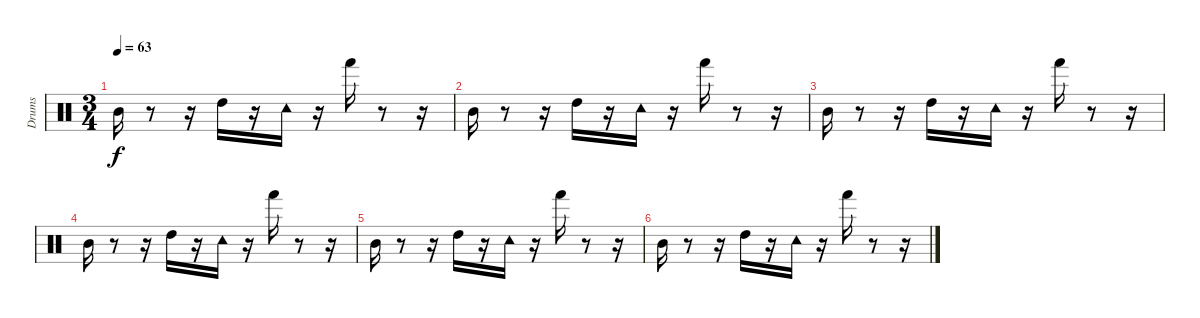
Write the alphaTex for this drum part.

\track ("Drums" "Drums") {instrument percussion}
\staff {score}
\articulation defaults
\ts (3 4)
\tempo 63
\clef neutral
\ks c "Mid Tom (hit)".16{dy f}
r.8 r.16 "High Tom (hit)".16 r.16 "Tambourine (hit)".16 r.16 "Hand (hit)".16 r.8 r.16 |
"Mid Tom (hit)".16 r.8 r.16 "High Tom (hit)".16 r.16 "Tambourine (hit)".16 r.16 "Hand (hit)".16 r.8 r.16 |
"Mid Tom (hit)".16 r.8 r.16 "High Tom (hit)".16 r.16 "Tambourine (hit)".16 r.16 "Hand (hit)".16 r.8 r.16 |
"Mid Tom (hit)".16 r.8 r.16 "High Tom (hit)".16 r.16 "Tambourine (hit)".16 r.16 "Hand (hit)".16 r.8 r.16 |
"Mid Tom (hit)".16 r.8 r.16 "High Tom (hit)".16 r.16 "Tambourine (hit)".16 r.16 "Hand (hit)".16 r.8 r.16 |
"Mid Tom (hit)".16 r.8 r.16 "High Tom (hit)".16 r.16 "Tambourine (hit)".16 r.16 "Hand (hit)".16 r.8 r.16
